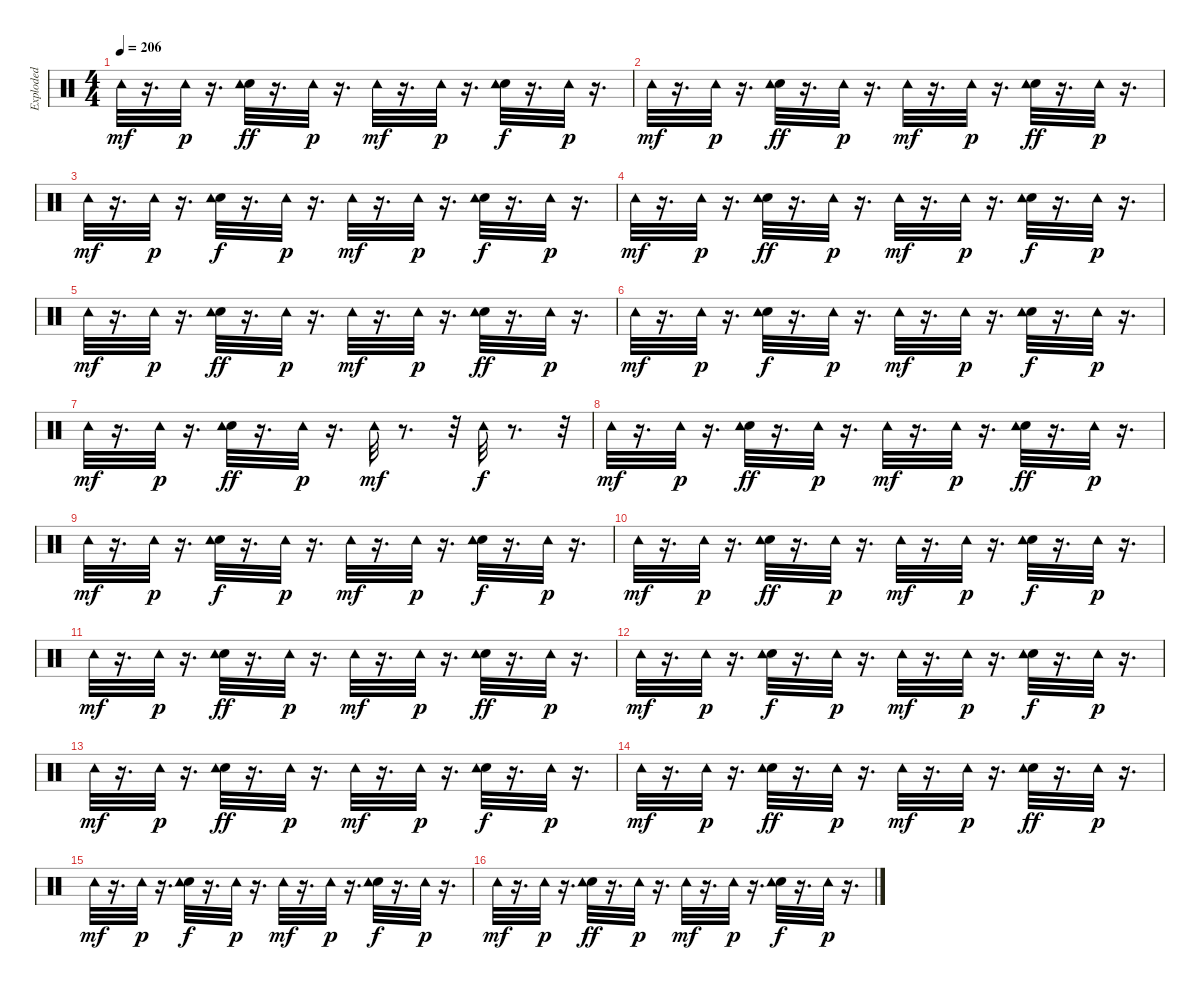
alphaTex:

\track ("Exploded" "Exploded") {instrument percussion}
\staff {score}
\articulation defaults
\ts (4 4)
\tempo 206
\clef neutral
\ks c "Tambourine (hit)".32{dy mf}
r.16{d} "Tambourine (hit)".32{dy p} r.16{d} ("Hand Clap (hit)" "Tambourine (hit)").32{dy ff} r.16{d} "Tambourine (hit)".32{dy p} r.16{d} "Tambourine (hit)".32{dy mf} r.16{d} "Tambourine (hit)".32{dy p} r.16{d} ("Hand Clap (hit)" "Tambourine (hit)").32{dy f} r.16{d} "Tambourine (hit)".32{dy p} r.16{d} |
"Tambourine (hit)".32{dy mf} r.16{d} "Tambourine (hit)".32{dy p} r.16{d} ("Hand Clap (hit)" "Tambourine (hit)").32{dy ff} r.16{d} "Tambourine (hit)".32{dy p} r.16{d} "Tambourine (hit)".32{dy mf} r.16{d} "Tambourine (hit)".32{dy p} r.16{d} ("Hand Clap (hit)" "Tambourine (hit)").32{dy ff} r.16{d} "Tambourine (hit)".32{dy p} r.16{d} |
"Tambourine (hit)".32{dy mf} r.16{d} "Tambourine (hit)".32{dy p} r.16{d} ("Hand Clap (hit)" "Tambourine (hit)").32{dy f} r.16{d} "Tambourine (hit)".32{dy p} r.16{d} "Tambourine (hit)".32{dy mf} r.16{d} "Tambourine (hit)".32{dy p} r.16{d} ("Hand Clap (hit)" "Tambourine (hit)").32{dy f} r.16{d} "Tambourine (hit)".32{dy p} r.16{d} |
"Tambourine (hit)".32{dy mf} r.16{d} "Tambourine (hit)".32{dy p} r.16{d} ("Hand Clap (hit)" "Tambourine (hit)").32{dy ff} r.16{d} "Tambourine (hit)".32{dy p} r.16{d} "Tambourine (hit)".32{dy mf} r.16{d} "Tambourine (hit)".32{dy p} r.16{d} ("Hand Clap (hit)" "Tambourine (hit)").32{dy f} r.16{d} "Tambourine (hit)".32{dy p} r.16{d} |
"Tambourine (hit)".32{dy mf} r.16{d} "Tambourine (hit)".32{dy p} r.16{d} ("Hand Clap (hit)" "Tambourine (hit)").32{dy ff} r.16{d} "Tambourine (hit)".32{dy p} r.16{d} "Tambourine (hit)".32{dy mf} r.16{d} "Tambourine (hit)".32{dy p} r.16{d} ("Hand Clap (hit)" "Tambourine (hit)").32{dy ff} r.16{d} "Tambourine (hit)".32{dy p} r.16{d} |
"Tambourine (hit)".32{dy mf} r.16{d} "Tambourine (hit)".32{dy p} r.16{d} ("Hand Clap (hit)" "Tambourine (hit)").32{dy f} r.16{d} "Tambourine (hit)".32{dy p} r.16{d} "Tambourine (hit)".32{dy mf} r.16{d} "Tambourine (hit)".32{dy p} r.16{d} ("Hand Clap (hit)" "Tambourine (hit)").32{dy f} r.16{d} "Tambourine (hit)".32{dy p} r.16{d} |
"Tambourine (hit)".32{dy mf} r.16{d} "Tambourine (hit)".32{dy p} r.16{d} ("Hand Clap (hit)" "Tambourine (hit)").32{dy ff} r.16{d} "Tambourine (hit)".32{dy p} r.16{d} "Tambourine (hit)".32{dy mf} r.8{d} r.32 "Tambourine (hit)".32{dy f} r.8{d} r.32 |
"Tambourine (hit)".32{dy mf} r.16{d} "Tambourine (hit)".32{dy p} r.16{d} ("Hand Clap (hit)" "Tambourine (hit)").32{dy ff} r.16{d} "Tambourine (hit)".32{dy p} r.16{d} "Tambourine (hit)".32{dy mf} r.16{d} "Tambourine (hit)".32{dy p} r.16{d} ("Hand Clap (hit)" "Tambourine (hit)").32{dy ff} r.16{d} "Tambourine (hit)".32{dy p} r.16{d} |
"Tambourine (hit)".32{dy mf} r.16{d} "Tambourine (hit)".32{dy p} r.16{d} ("Hand Clap (hit)" "Tambourine (hit)").32{dy f} r.16{d} "Tambourine (hit)".32{dy p} r.16{d} "Tambourine (hit)".32{dy mf} r.16{d} "Tambourine (hit)".32{dy p} r.16{d} ("Hand Clap (hit)" "Tambourine (hit)").32{dy f} r.16{d} "Tambourine (hit)".32{dy p} r.16{d} |
"Tambourine (hit)".32{dy mf} r.16{d} "Tambourine (hit)".32{dy p} r.16{d} ("Hand Clap (hit)" "Tambourine (hit)").32{dy ff} r.16{d} "Tambourine (hit)".32{dy p} r.16{d} "Tambourine (hit)".32{dy mf} r.16{d} "Tambourine (hit)".32{dy p} r.16{d} ("Hand Clap (hit)" "Tambourine (hit)").32{dy f} r.16{d} "Tambourine (hit)".32{dy p} r.16{d} |
"Tambourine (hit)".32{dy mf} r.16{d} "Tambourine (hit)".32{dy p} r.16{d} ("Hand Clap (hit)" "Tambourine (hit)").32{dy ff} r.16{d} "Tambourine (hit)".32{dy p} r.16{d} "Tambourine (hit)".32{dy mf} r.16{d} "Tambourine (hit)".32{dy p} r.16{d} ("Hand Clap (hit)" "Tambourine (hit)").32{dy ff} r.16{d} "Tambourine (hit)".32{dy p} r.16{d} |
"Tambourine (hit)".32{dy mf} r.16{d} "Tambourine (hit)".32{dy p} r.16{d} ("Hand Clap (hit)" "Tambourine (hit)").32{dy f} r.16{d} "Tambourine (hit)".32{dy p} r.16{d} "Tambourine (hit)".32{dy mf} r.16{d} "Tambourine (hit)".32{dy p} r.16{d} ("Hand Clap (hit)" "Tambourine (hit)").32{dy f} r.16{d} "Tambourine (hit)".32{dy p} r.16{d} |
"Tambourine (hit)".32{dy mf} r.16{d} "Tambourine (hit)".32{dy p} r.16{d} ("Hand Clap (hit)" "Tambourine (hit)").32{dy ff} r.16{d} "Tambourine (hit)".32{dy p} r.16{d} "Tambourine (hit)".32{dy mf} r.16{d} "Tambourine (hit)".32{dy p} r.16{d} ("Hand Clap (hit)" "Tambourine (hit)").32{dy f} r.16{d} "Tambourine (hit)".32{dy p} r.16{d} |
"Tambourine (hit)".32{dy mf} r.16{d} "Tambourine (hit)".32{dy p} r.16{d} ("Hand Clap (hit)" "Tambourine (hit)").32{dy ff} r.16{d} "Tambourine (hit)".32{dy p} r.16{d} "Tambourine (hit)".32{dy mf} r.16{d} "Tambourine (hit)".32{dy p} r.16{d} ("Hand Clap (hit)" "Tambourine (hit)").32{dy ff} r.16{d} "Tambourine (hit)".32{dy p} r.16{d} |
"Tambourine (hit)".32{dy mf} r.16{d} "Tambourine (hit)".32{dy p} r.16{d} ("Hand Clap (hit)" "Tambourine (hit)").32{dy f} r.16{d} "Tambourine (hit)".32{dy p} r.16{d} "Tambourine (hit)".32{dy mf} r.16{d} "Tambourine (hit)".32{dy p} r.16{d} ("Hand Clap (hit)" "Tambourine (hit)").32{dy f} r.16{d} "Tambourine (hit)".32{dy p} r.16{d} |
"Tambourine (hit)".32{dy mf} r.16{d} "Tambourine (hit)".32{dy p} r.16{d} ("Hand Clap (hit)" "Tambourine (hit)").32{dy ff} r.16{d} "Tambourine (hit)".32{dy p} r.16{d} "Tambourine (hit)".32{dy mf} r.16{d} "Tambourine (hit)".32{dy p} r.16{d} ("Hand Clap (hit)" "Tambourine (hit)").32{dy f} r.16{d} "Tambourine (hit)".32{dy p} r.16{d}
